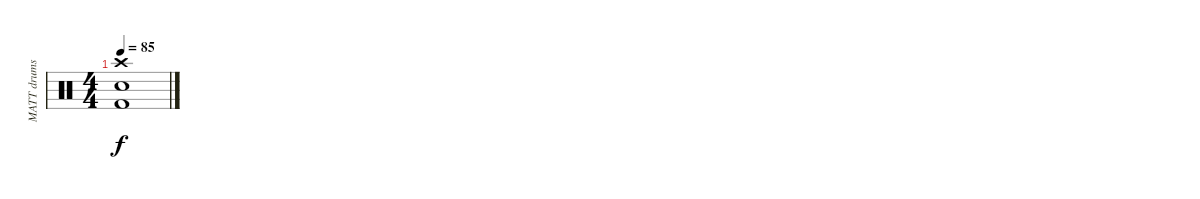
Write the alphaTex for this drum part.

\track ("MATT drums" "MATT drums") {instrument percussion}
\staff {score}
\articulation defaults
\ts (4 4)
\tempo 85
\clef neutral
\ks c
("Crash high (hit)" "Snare (hit) 2" "Kick (hit) 2").1{dy f}
